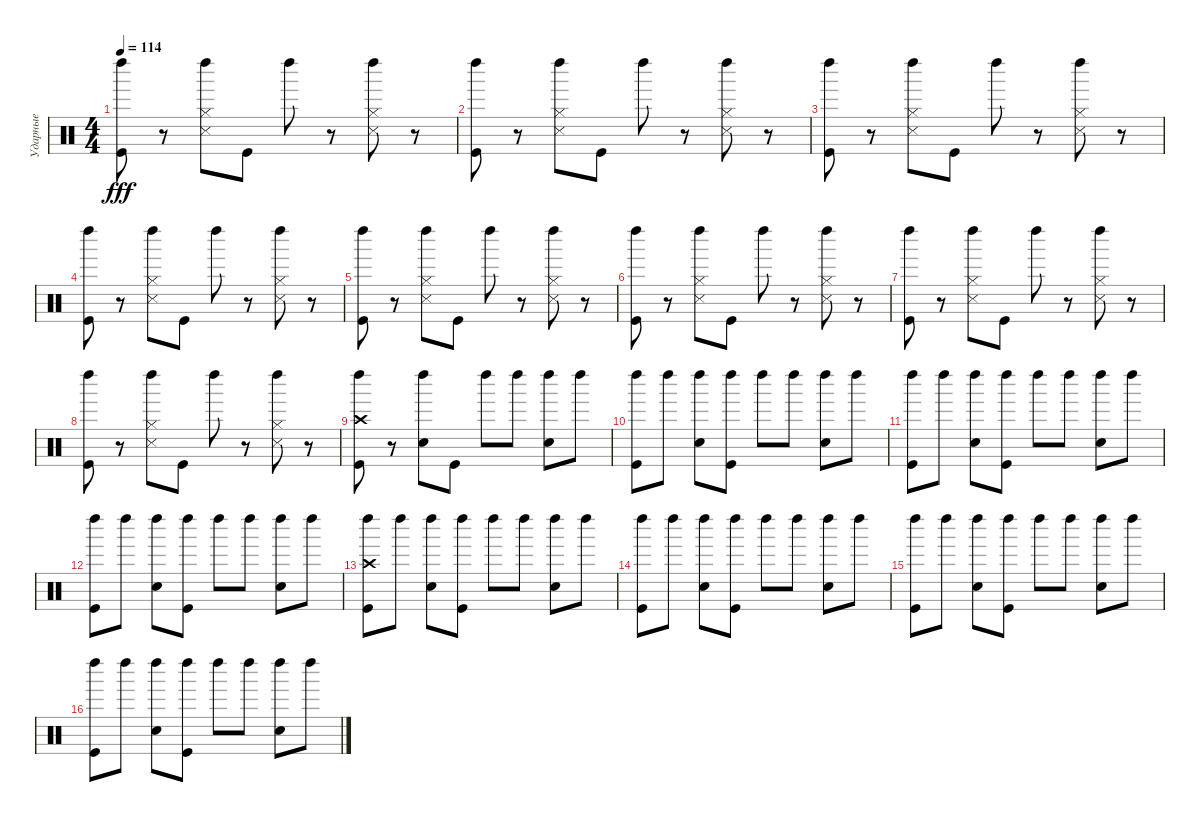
\track ("Ударные" "Ударные") {instrument percussion}
\staff {score}
\articulation defaults
\ts (4 4)
\tempo 114
\clef neutral
\ks c
("Kick (hit)" "Left Maraca (hit)").8{dy fff} r.8 ("Snare (side stick) 3" "Hi-Hat (closed)" "Left Maraca (hit)").8 "Kick (hit)".8 "Left Maraca (hit)".8 r.8 ("Snare (side stick) 3" "Hi-Hat (closed)" "Left Maraca (hit)").8 r.8 |
("Kick (hit)" "Left Maraca (hit)").8 r.8 ("Hi-Hat (closed)" "Snare (side stick) 3" "Left Maraca (hit)").8 "Kick (hit)".8 "Left Maraca (hit)".8 r.8 ("Snare (side stick) 3" "Hi-Hat (closed)" "Left Maraca (hit)").8 r.8 |
("Kick (hit)" "Left Maraca (hit)").8 r.8 ("Hi-Hat (closed)" "Snare (side stick) 3" "Left Maraca (hit)").8 "Kick (hit)".8 "Left Maraca (hit)".8 r.8 ("Hi-Hat (closed)" "Snare (side stick) 3" "Left Maraca (hit)").8 r.8 |
("Kick (hit)" "Left Maraca (hit)").8 r.8 ("Hi-Hat (closed)" "Snare (side stick) 3" "Left Maraca (hit)").8 "Kick (hit)".8 "Left Maraca (hit)".8 r.8 ("Snare (side stick) 3" "Hi-Hat (closed)" "Left Maraca (hit)").8 r.8 |
("Kick (hit)" "Left Maraca (hit)").8 r.8 ("Hi-Hat (closed)" "Snare (side stick) 3" "Left Maraca (hit)").8 "Kick (hit)".8 "Left Maraca (hit)".8 r.8 ("Hi-Hat (closed)" "Snare (side stick) 3" "Left Maraca (hit)").8 r.8 |
("Kick (hit)" "Left Maraca (hit)").8 r.8 ("Snare (side stick) 3" "Hi-Hat (closed)" "Left Maraca (hit)").8 "Kick (hit)".8 "Left Maraca (hit)".8 r.8 ("Hi-Hat (closed)" "Snare (side stick) 3" "Left Maraca (hit)").8 r.8 |
("Kick (hit)" "Left Maraca (hit)").8 r.8 ("Hi-Hat (closed)" "Snare (side stick) 3" "Left Maraca (hit)").8 "Kick (hit)".8 "Left Maraca (hit)".8 r.8 ("Snare (side stick) 3" "Hi-Hat (closed)" "Left Maraca (hit)").8 r.8 |
("Kick (hit)" "Left Maraca (hit)").8 r.8 ("Hi-Hat (closed)" "Snare (side stick) 3" "Left Maraca (hit)").8 "Kick (hit)".8 "Left Maraca (hit)".8 r.8 ("Hi-Hat (closed)" "Snare (side stick) 3" "Left Maraca (hit)").8 r.8 |
("Kick (hit)" "Left Maraca (hit)" "Crash high (hit)").8 r.8 ("Snare (hit) 2" "Left Maraca (hit)").8 "Kick (hit)".8 "Left Maraca (hit)".8 "Left Maraca (hit)".8 ("Snare (hit) 2" "Left Maraca (hit)").8 "Left Maraca (hit)".8 |
("Kick (hit)" "Left Maraca (hit)").8 "Left Maraca (hit)".8 ("Snare (hit) 2" "Left Maraca (hit)").8 ("Kick (hit)" "Left Maraca (hit)").8 "Left Maraca (hit)".8 "Left Maraca (hit)".8 ("Snare (hit) 2" "Left Maraca (hit)").8 "Left Maraca (hit)".8 |
("Kick (hit)" "Left Maraca (hit)").8 "Left Maraca (hit)".8 ("Snare (hit) 2" "Left Maraca (hit)").8 ("Kick (hit)" "Left Maraca (hit)").8 "Left Maraca (hit)".8 "Left Maraca (hit)".8 ("Snare (hit) 2" "Left Maraca (hit)").8 "Left Maraca (hit)".8 |
("Kick (hit)" "Left Maraca (hit)").8 "Left Maraca (hit)".8 ("Snare (hit) 2" "Left Maraca (hit)").8 ("Kick (hit)" "Left Maraca (hit)").8 "Left Maraca (hit)".8 "Left Maraca (hit)".8 ("Snare (hit) 2" "Left Maraca (hit)").8 "Left Maraca (hit)".8 |
("Kick (hit)" "Crash high (hit)" "Left Maraca (hit)").8 "Left Maraca (hit)".8 ("Snare (hit) 2" "Left Maraca (hit)").8 ("Kick (hit)" "Left Maraca (hit)").8 "Left Maraca (hit)".8 "Left Maraca (hit)".8 ("Snare (hit) 2" "Left Maraca (hit)").8 "Left Maraca (hit)".8 |
("Kick (hit)" "Left Maraca (hit)").8 "Left Maraca (hit)".8 ("Snare (hit) 2" "Left Maraca (hit)").8 ("Kick (hit)" "Left Maraca (hit)").8 "Left Maraca (hit)".8 "Left Maraca (hit)".8 ("Snare (hit) 2" "Left Maraca (hit)").8 "Left Maraca (hit)".8 |
("Kick (hit)" "Left Maraca (hit)").8 "Left Maraca (hit)".8 ("Snare (hit) 2" "Left Maraca (hit)").8 ("Kick (hit)" "Left Maraca (hit)").8 "Left Maraca (hit)".8 "Left Maraca (hit)".8 ("Snare (hit) 2" "Left Maraca (hit)").8 "Left Maraca (hit)".8 |
("Kick (hit)" "Left Maraca (hit)").8 "Left Maraca (hit)".8 ("Snare (hit) 2" "Left Maraca (hit)").8 ("Kick (hit)" "Left Maraca (hit)").8 "Left Maraca (hit)".8 "Left Maraca (hit)".8 ("Snare (hit) 2" "Left Maraca (hit)").8 "Left Maraca (hit)".8
